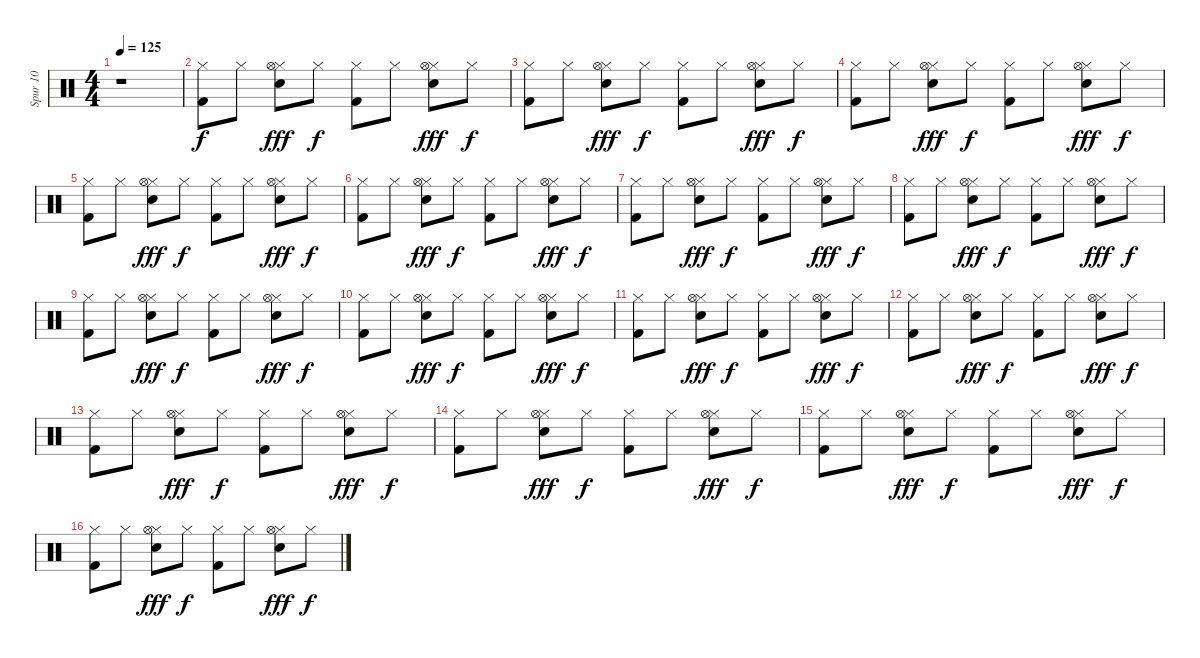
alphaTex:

\track ("Spur 10" "Spur 10") {instrument percussion}
\staff {score}
\articulation defaults
\ts (4 4)
\tempo 125
\clef neutral
\ks c
r.1{dy f} |
("Kick (hit) 2" "Hi-Hat (closed)").8 "Hi-Hat (closed)".8 ("Hi-Hat (closed)" "Snare (hit) 2" "Hi-Hat (open)").8{dy fff} "Hi-Hat (closed)".8{dy f} ("Hi-Hat (closed)" "Kick (hit) 2").8 "Hi-Hat (closed)".8 ("Hi-Hat (closed)" "Snare (hit) 2" "Hi-Hat (open)").8{dy fff} "Hi-Hat (closed)".8{dy f} |
("Kick (hit) 2" "Hi-Hat (closed)").8 "Hi-Hat (closed)".8 ("Hi-Hat (closed)" "Snare (hit) 2" "Hi-Hat (open)").8{dy fff} "Hi-Hat (closed)".8{dy f} ("Hi-Hat (closed)" "Kick (hit) 2").8 "Hi-Hat (closed)".8 ("Hi-Hat (closed)" "Snare (hit) 2" "Hi-Hat (open)").8{dy fff} "Hi-Hat (closed)".8{dy f} |
("Kick (hit) 2" "Hi-Hat (closed)").8 "Hi-Hat (closed)".8 ("Hi-Hat (closed)" "Snare (hit) 2" "Hi-Hat (open)").8{dy fff} "Hi-Hat (closed)".8{dy f} ("Hi-Hat (closed)" "Kick (hit) 2").8 "Hi-Hat (closed)".8 ("Hi-Hat (closed)" "Snare (hit) 2" "Hi-Hat (open)").8{dy fff} "Hi-Hat (closed)".8{dy f} |
("Kick (hit) 2" "Hi-Hat (closed)").8 "Hi-Hat (closed)".8 ("Hi-Hat (closed)" "Snare (hit) 2" "Hi-Hat (open)").8{dy fff} "Hi-Hat (closed)".8{dy f} ("Hi-Hat (closed)" "Kick (hit) 2").8 "Hi-Hat (closed)".8 ("Hi-Hat (closed)" "Snare (hit) 2" "Hi-Hat (open)").8{dy fff} "Hi-Hat (closed)".8{dy f} |
("Kick (hit) 2" "Hi-Hat (closed)").8 "Hi-Hat (closed)".8 ("Hi-Hat (closed)" "Snare (hit) 2" "Hi-Hat (open)").8{dy fff} "Hi-Hat (closed)".8{dy f} ("Hi-Hat (closed)" "Kick (hit) 2").8 "Hi-Hat (closed)".8 ("Hi-Hat (closed)" "Snare (hit) 2" "Hi-Hat (open)").8{dy fff} "Hi-Hat (closed)".8{dy f} |
("Kick (hit) 2" "Hi-Hat (closed)").8 "Hi-Hat (closed)".8 ("Hi-Hat (closed)" "Snare (hit) 2" "Hi-Hat (open)").8{dy fff} "Hi-Hat (closed)".8{dy f} ("Hi-Hat (closed)" "Kick (hit) 2").8 "Hi-Hat (closed)".8 ("Hi-Hat (closed)" "Snare (hit) 2" "Hi-Hat (open)").8{dy fff} "Hi-Hat (closed)".8{dy f} |
("Kick (hit) 2" "Hi-Hat (closed)").8 "Hi-Hat (closed)".8 ("Hi-Hat (closed)" "Snare (hit) 2" "Hi-Hat (open)").8{dy fff} "Hi-Hat (closed)".8{dy f} ("Hi-Hat (closed)" "Kick (hit) 2").8 "Hi-Hat (closed)".8 ("Hi-Hat (closed)" "Snare (hit) 2" "Hi-Hat (open)").8{dy fff} "Hi-Hat (closed)".8{dy f} |
("Kick (hit) 2" "Hi-Hat (closed)").8 "Hi-Hat (closed)".8 ("Hi-Hat (closed)" "Snare (hit) 2" "Hi-Hat (open)").8{dy fff} "Hi-Hat (closed)".8{dy f} ("Hi-Hat (closed)" "Kick (hit) 2").8 "Hi-Hat (closed)".8 ("Hi-Hat (closed)" "Snare (hit) 2" "Hi-Hat (open)").8{dy fff} "Hi-Hat (closed)".8{dy f} |
("Kick (hit) 2" "Hi-Hat (closed)").8 "Hi-Hat (closed)".8 ("Hi-Hat (closed)" "Snare (hit) 2" "Hi-Hat (open)").8{dy fff} "Hi-Hat (closed)".8{dy f} ("Hi-Hat (closed)" "Kick (hit) 2").8 "Hi-Hat (closed)".8 ("Hi-Hat (closed)" "Snare (hit) 2" "Hi-Hat (open)").8{dy fff} "Hi-Hat (closed)".8{dy f} |
("Kick (hit) 2" "Hi-Hat (closed)").8 "Hi-Hat (closed)".8 ("Hi-Hat (closed)" "Snare (hit) 2" "Hi-Hat (open)").8{dy fff} "Hi-Hat (closed)".8{dy f} ("Hi-Hat (closed)" "Kick (hit) 2").8 "Hi-Hat (closed)".8 ("Hi-Hat (closed)" "Snare (hit) 2" "Hi-Hat (open)").8{dy fff} "Hi-Hat (closed)".8{dy f} |
("Kick (hit) 2" "Hi-Hat (closed)").8 "Hi-Hat (closed)".8 ("Hi-Hat (closed)" "Snare (hit) 2" "Hi-Hat (open)").8{dy fff} "Hi-Hat (closed)".8{dy f} ("Hi-Hat (closed)" "Kick (hit) 2").8 "Hi-Hat (closed)".8 ("Hi-Hat (closed)" "Snare (hit) 2" "Hi-Hat (open)").8{dy fff} "Hi-Hat (closed)".8{dy f} |
("Kick (hit) 2" "Hi-Hat (closed)").8 "Hi-Hat (closed)".8 ("Hi-Hat (closed)" "Snare (hit) 2" "Hi-Hat (open)").8{dy fff} "Hi-Hat (closed)".8{dy f} ("Hi-Hat (closed)" "Kick (hit) 2").8 "Hi-Hat (closed)".8 ("Hi-Hat (closed)" "Snare (hit) 2" "Hi-Hat (open)").8{dy fff} "Hi-Hat (closed)".8{dy f} |
("Kick (hit) 2" "Hi-Hat (closed)").8 "Hi-Hat (closed)".8 ("Hi-Hat (closed)" "Snare (hit) 2" "Hi-Hat (open)").8{dy fff} "Hi-Hat (closed)".8{dy f} ("Hi-Hat (closed)" "Kick (hit) 2").8 "Hi-Hat (closed)".8 ("Hi-Hat (closed)" "Snare (hit) 2" "Hi-Hat (open)").8{dy fff} "Hi-Hat (closed)".8{dy f} |
("Kick (hit) 2" "Hi-Hat (closed)").8 "Hi-Hat (closed)".8 ("Hi-Hat (closed)" "Snare (hit) 2" "Hi-Hat (open)").8{dy fff} "Hi-Hat (closed)".8{dy f} ("Hi-Hat (closed)" "Kick (hit) 2").8 "Hi-Hat (closed)".8 ("Hi-Hat (closed)" "Snare (hit) 2" "Hi-Hat (open)").8{dy fff} "Hi-Hat (closed)".8{dy f} |
("Kick (hit) 2" "Hi-Hat (closed)").8 "Hi-Hat (closed)".8 ("Hi-Hat (closed)" "Snare (hit) 2" "Hi-Hat (open)").8{dy fff} "Hi-Hat (closed)".8{dy f} ("Hi-Hat (closed)" "Kick (hit) 2").8 "Hi-Hat (closed)".8 ("Hi-Hat (closed)" "Snare (hit) 2" "Hi-Hat (open)").8{dy fff} "Hi-Hat (closed)".8{dy f}
